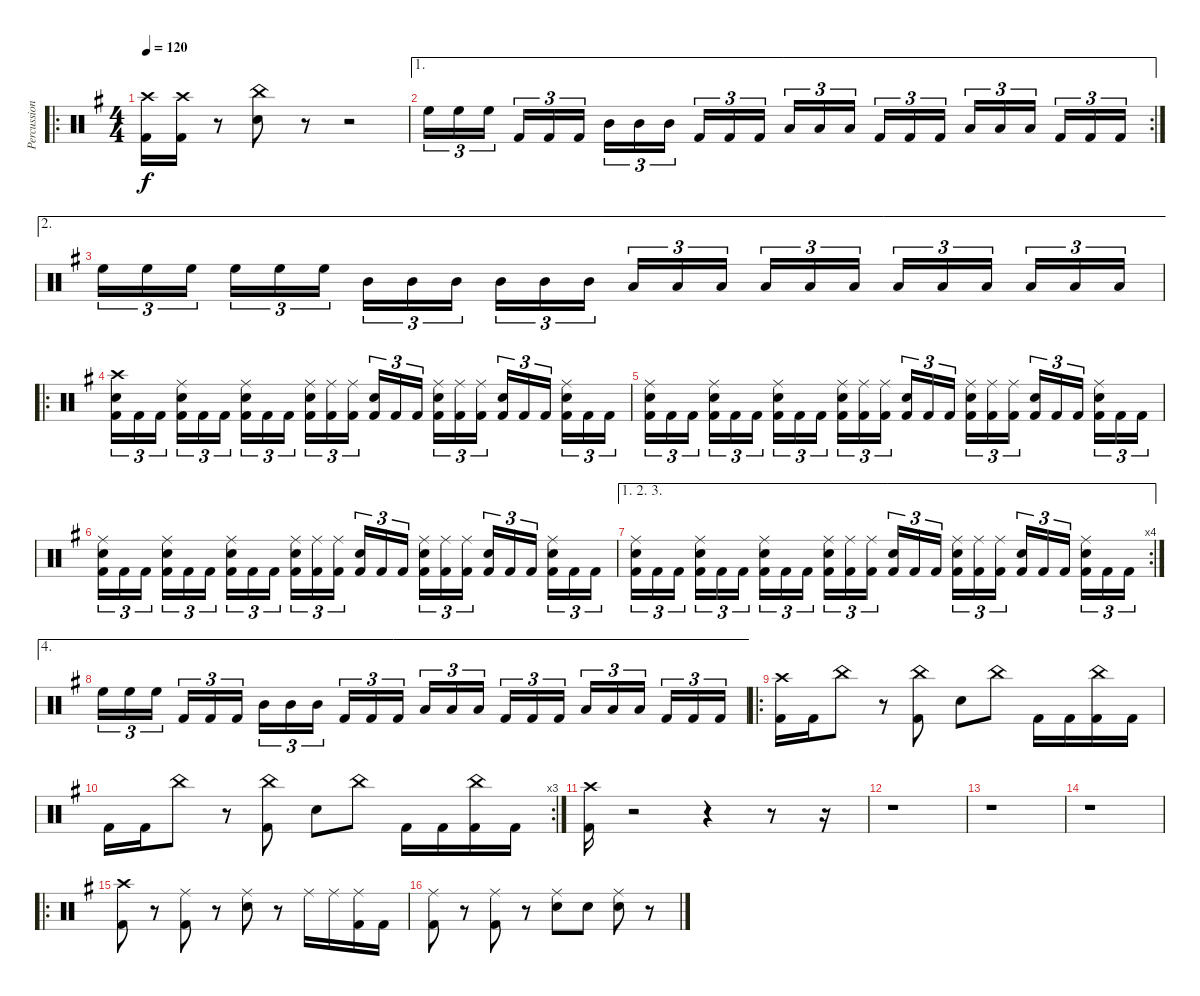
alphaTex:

\track ("Percussions" "Percussion") {instrument percussion}
\staff {score}
\articulation defaults
\ro
\ts (4 4)
\tempo 120
\clef neutral
\ks g
("Crash high (hit)" "Kick (hit) 2").16{dy f} ("Crash high (hit)" "Kick (hit) 2").16 r.8 ("China (hit)" "Snare (hit) 2").8 r.8 r.2 |
\ae 1
\rc 2 "High Floor Tom (hit)".16{tu (3 2)} "High Floor Tom (hit)".16{tu (3 2)} "High Floor Tom (hit)".16{tu (3 2)} "Kick (hit) 2".16{tu (3 2)} "Kick (hit) 2".16{tu (3 2)} "Kick (hit) 2".16{tu (3 2)} "Mid Tom (hit)".16{tu (3 2)} "Mid Tom (hit)".16{tu (3 2)} "Mid Tom (hit)".16{tu (3 2)} "Kick (hit) 2".16{tu (3 2)} "Kick (hit) 2".16{tu (3 2)} "Kick (hit) 2".16{tu (3 2)} "Low Tom (hit)".16{tu (3 2)} "Low Tom (hit)".16{tu (3 2)} "Low Tom (hit)".16{tu (3 2)} "Kick (hit) 2".16{tu (3 2)} "Kick (hit) 2".16{tu (3 2)} "Kick (hit) 2".16{tu (3 2)} "Low Floor Tom (hit)".16{tu (3 2)} "Low Floor Tom (hit)".16{tu (3 2)} "Low Floor Tom (hit)".16{tu (3 2)} "Kick (hit) 2".16{tu (3 2)} "Kick (hit) 2".16{tu (3 2)} "Kick (hit) 2".16{tu (3 2)}
|
\ae 2 "High Floor Tom (hit)".16{tu (3 2)} "High Floor Tom (hit)".16{tu (3 2)} "High Floor Tom (hit)".16{tu (3 2)} "High Floor Tom (hit)".16{tu (3 2)} "High Floor Tom (hit)".16{tu (3 2)} "High Floor Tom (hit)".16{tu (3 2)} "Mid Tom (hit)".16{tu (3 2)} "Mid Tom (hit)".16{tu (3 2)} "Mid Tom (hit)".16{tu (3 2)} "Mid Tom (hit)".16{tu (3 2)} "Mid Tom (hit)".16{tu (3 2)} "Mid Tom (hit)".16{tu (3 2)} "Low Tom (hit)".16{tu (3 2)} "Low Tom (hit)".16{tu (3 2)} "Low Tom (hit)".16{tu (3 2)} "Low Tom (hit)".16{tu (3 2)} "Low Tom (hit)".16{tu (3 2)} "Low Tom (hit)".16{tu (3 2)} "Low Floor Tom (hit)".16{tu (3 2)} "Low Floor Tom (hit)".16{tu (3 2)} "Low Floor Tom (hit)".16{tu (3 2)} "Low Floor Tom (hit)".16{tu (3 2)} "Low Floor Tom (hit)".16{tu (3 2)} "Low Floor Tom (hit)".16{tu (3 2)}
|
\ro
("Crash high (hit)" "Snare (hit) 2" "Kick (hit) 2").16{tu (3 2)} "Kick (hit) 2".16{tu (3 2)} "Kick (hit) 2".16{tu (3 2)} ("Ride (middle)" "Snare (hit) 2" "Kick (hit) 2").16{tu (3 2)} "Kick (hit) 2".16{tu (3 2)} "Kick (hit) 2".16{tu (3 2)} ("Ride (middle)" "Snare (hit) 2" "Kick (hit) 2").16{tu (3 2)} "Kick (hit) 2".16{tu (3 2)} "Kick (hit) 2".16{tu (3 2)} ("Ride (middle)" "Snare (hit) 2" "Kick (hit) 2").16{tu (3 2)} ("Ride (middle)" "Kick (hit) 2").16{tu (3 2)} ("Ride (middle)" "Kick (hit) 2").16{tu (3 2)} ("Snare (hit) 2" "Kick (hit) 2").16{tu (3 2)} "Kick (hit) 2".16{tu (3 2)} "Kick (hit) 2".16{tu (3 2)} ("Ride (middle)" "Snare (hit) 2" "Kick (hit) 2").16{tu (3 2)} ("Ride (middle)" "Kick (hit) 2").16{tu (3 2)} ("Ride (middle)" "Kick (hit) 2").16{tu (3 2)} ("Snare (hit) 2" "Kick (hit) 2").16{tu (3 2)} "Kick (hit) 2".16{tu (3 2)} "Kick (hit) 2".16{tu (3 2)} ("Ride (middle)" "Snare (hit) 2" "Kick (hit) 2").16{tu (3 2)} "Kick (hit) 2".16{tu (3 2)} "Kick (hit) 2".16{tu (3 2)} |
("Ride (middle)" "Snare (hit) 2" "Kick (hit) 2").16{tu (3 2)} "Kick (hit) 2".16{tu (3 2)} "Kick (hit) 2".16{tu (3 2)} ("Ride (middle)" "Snare (hit) 2" "Kick (hit) 2").16{tu (3 2)} "Kick (hit) 2".16{tu (3 2)} "Kick (hit) 2".16{tu (3 2)} ("Ride (middle)" "Snare (hit) 2" "Kick (hit) 2").16{tu (3 2)} "Kick (hit) 2".16{tu (3 2)} "Kick (hit) 2".16{tu (3 2)} ("Ride (middle)" "Snare (hit) 2" "Kick (hit) 2").16{tu (3 2)} ("Ride (middle)" "Kick (hit) 2").16{tu (3 2)} ("Ride (middle)" "Kick (hit) 2").16{tu (3 2)} ("Snare (hit) 2" "Kick (hit) 2").16{tu (3 2)} "Kick (hit) 2".16{tu (3 2)} "Kick (hit) 2".16{tu (3 2)} ("Ride (middle)" "Snare (hit) 2" "Kick (hit) 2").16{tu (3 2)} ("Ride (middle)" "Kick (hit) 2").16{tu (3 2)} ("Ride (middle)" "Kick (hit) 2").16{tu (3 2)} ("Snare (hit) 2" "Kick (hit) 2").16{tu (3 2)} "Kick (hit) 2".16{tu (3 2)} "Kick (hit) 2".16{tu (3 2)} ("Ride (middle)" "Snare (hit) 2" "Kick (hit) 2").16{tu (3 2)} "Kick (hit) 2".16{tu (3 2)} "Kick (hit) 2".16{tu (3 2)} |
("Ride (middle)" "Snare (hit) 2" "Kick (hit) 2").16{tu (3 2)} "Kick (hit) 2".16{tu (3 2)} "Kick (hit) 2".16{tu (3 2)} ("Ride (middle)" "Snare (hit) 2" "Kick (hit) 2").16{tu (3 2)} "Kick (hit) 2".16{tu (3 2)} "Kick (hit) 2".16{tu (3 2)} ("Ride (middle)" "Snare (hit) 2" "Kick (hit) 2").16{tu (3 2)} "Kick (hit) 2".16{tu (3 2)} "Kick (hit) 2".16{tu (3 2)} ("Ride (middle)" "Snare (hit) 2" "Kick (hit) 2").16{tu (3 2)} ("Ride (middle)" "Kick (hit) 2").16{tu (3 2)} ("Ride (middle)" "Kick (hit) 2").16{tu (3 2)} ("Snare (hit) 2" "Kick (hit) 2").16{tu (3 2)} "Kick (hit) 2".16{tu (3 2)} "Kick (hit) 2".16{tu (3 2)} ("Ride (middle)" "Snare (hit) 2" "Kick (hit) 2").16{tu (3 2)} ("Ride (middle)" "Kick (hit) 2").16{tu (3 2)} ("Ride (middle)" "Kick (hit) 2").16{tu (3 2)} ("Snare (hit) 2" "Kick (hit) 2").16{tu (3 2)} "Kick (hit) 2".16{tu (3 2)} "Kick (hit) 2".16{tu (3 2)} ("Ride (middle)" "Snare (hit) 2" "Kick (hit) 2").16{tu (3 2)} "Kick (hit) 2".16{tu (3 2)} "Kick (hit) 2".16{tu (3 2)} |
\ae (1 2 3)
\rc 4
("Ride (middle)" "Snare (hit) 2" "Kick (hit) 2").16{tu (3 2)} "Kick (hit) 2".16{tu (3 2)} "Kick (hit) 2".16{tu (3 2)} ("Ride (middle)" "Snare (hit) 2" "Kick (hit) 2").16{tu (3 2)} "Kick (hit) 2".16{tu (3 2)} "Kick (hit) 2".16{tu (3 2)} ("Ride (middle)" "Snare (hit) 2" "Kick (hit) 2").16{tu (3 2)} "Kick (hit) 2".16{tu (3 2)} "Kick (hit) 2".16{tu (3 2)} ("Ride (middle)" "Snare (hit) 2" "Kick (hit) 2").16{tu (3 2)} ("Ride (middle)" "Kick (hit) 2").16{tu (3 2)} ("Ride (middle)" "Kick (hit) 2").16{tu (3 2)} ("Snare (hit) 2" "Kick (hit) 2").16{tu (3 2)} "Kick (hit) 2".16{tu (3 2)} "Kick (hit) 2".16{tu (3 2)} ("Ride (middle)" "Snare (hit) 2" "Kick (hit) 2").16{tu (3 2)} ("Ride (middle)" "Kick (hit) 2").16{tu (3 2)} ("Ride (middle)" "Kick (hit) 2").16{tu (3 2)} ("Snare (hit) 2" "Kick (hit) 2").16{tu (3 2)} "Kick (hit) 2".16{tu (3 2)} "Kick (hit) 2".16{tu (3 2)} ("Ride (middle)" "Snare (hit) 2" "Kick (hit) 2").16{tu (3 2)} "Kick (hit) 2".16{tu (3 2)} "Kick (hit) 2".16{tu (3 2)} |
\ae 4 "High Floor Tom (hit)".16{tu (3 2)} "High Floor Tom (hit)".16{tu (3 2)} "High Floor Tom (hit)".16{tu (3 2)} "Kick (hit) 2".16{tu (3 2)} "Kick (hit) 2".16{tu (3 2)} "Kick (hit) 2".16{tu (3 2)} "Mid Tom (hit)".16{tu (3 2)} "Mid Tom (hit)".16{tu (3 2)} "Mid Tom (hit)".16{tu (3 2)} "Kick (hit) 2".16{tu (3 2)} "Kick (hit) 2".16{tu (3 2)} "Kick (hit) 2".16{tu (3 2)} "Low Tom (hit)".16{tu (3 2)} "Low Tom (hit)".16{tu (3 2)} "Low Tom (hit)".16{tu (3 2)} "Kick (hit) 2".16{tu (3 2)} "Kick (hit) 2".16{tu (3 2)} "Kick (hit) 2".16{tu (3 2)} "Low Floor Tom (hit)".16{tu (3 2)} "Low Floor Tom (hit)".16{tu (3 2)} "Low Floor Tom (hit)".16{tu (3 2)} "Kick (hit) 2".16{tu (3 2)} "Kick (hit) 2".16{tu (3 2)} "Kick (hit) 2".16{tu (3 2)}
|
\ro
("Crash high (hit)" "Kick (hit) 2").16 "Kick (hit) 2".16 "China (hit)".8 r.8 ("China (hit)" "Kick (hit) 2").8 "Snare (hit) 2".8 "China (hit)".8 "Kick (hit) 2".16 "Kick (hit) 2".16 ("China (hit)" "Kick (hit) 2").16 "Kick (hit) 2".16 |
\rc 3 "Kick (hit) 2".16 "Kick (hit) 2".16 "China (hit)".8
r.8 ("China (hit)" "Kick (hit) 2").8 "Snare (hit) 2".8 "China (hit)".8 "Kick (hit) 2".16 "Kick (hit) 2".16 ("China (hit)" "Kick (hit) 2").16 "Kick (hit) 2".16 |
("Kick (hit) 2" "Crash high (hit)").16 r.2 r.4 r.8 r.16 |
r.1 |
r.1 |
r.1 |
\ro
("Crash high (hit)" "Kick (hit) 2").8 r.8 ("Ride (middle)" "Kick (hit) 2").8 r.8 ("Ride (middle)" "Snare (hit) 2").8 r.8 "Ride (middle)".16 "Ride (middle)".16 ("Ride (middle)" "Kick (hit) 2").16 "Kick (hit) 2".16 |
("Ride (middle)" "Kick (hit) 2").8 r.8 ("Ride (middle)" "Kick (hit) 2").8 r.8 ("Ride (middle)" "Snare (hit) 2").8 "Snare (hit) 2".8 ("Ride (middle)" "Snare (hit) 2").8 r.8
